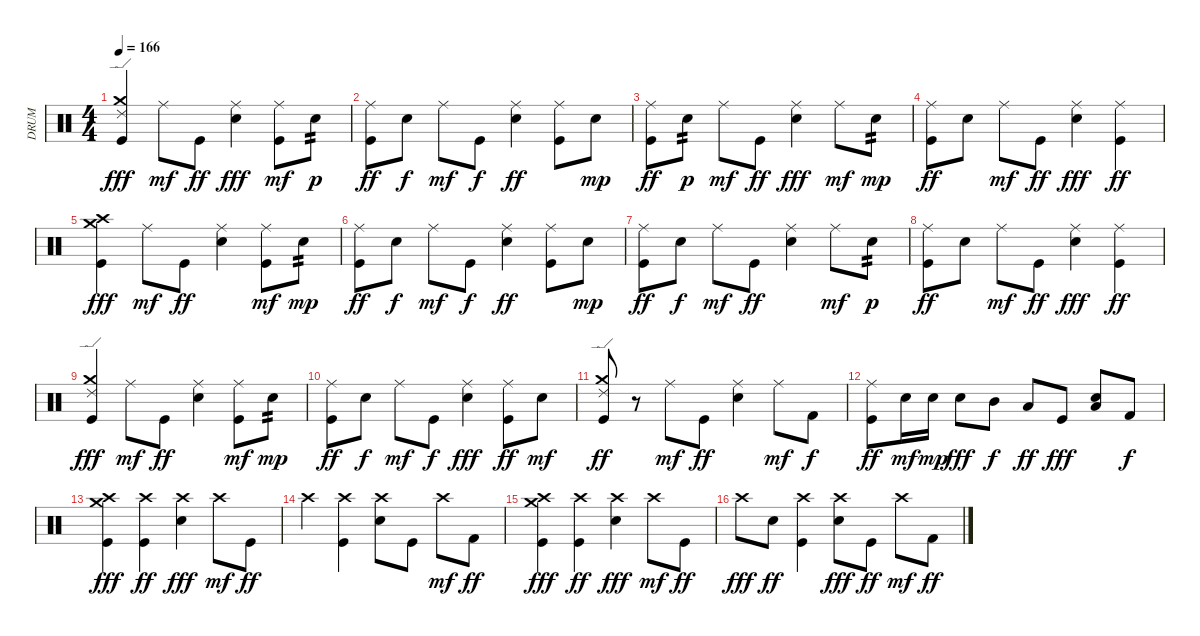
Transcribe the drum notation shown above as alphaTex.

\track ("DRUM" "DRUM") {instrument percussion}
\staff {score}
\articulation defaults
\ts (4 4)
\tempo 166
\clef neutral
\ks c
("Ride (edge) 2" "Crash medium (hit)" "Kick (hit)").4{dy fff} "Ride (middle)".8{dy mf} "Kick (hit)".8{dy ff} ("Ride (middle)" "Electric Snare (hit)").4{dy fff} ("Ride (middle)" "Kick (hit)").8{dy mf} "Electric Snare (hit)".8{tp 2 dy p} |
("Ride (middle)" "Kick (hit)").8{dy ff} "Electric Snare (hit)".8{dy f} "Ride (middle)".8{dy mf} "Kick (hit)".8{dy f} ("Ride (middle)" "Electric Snare (hit)").4{dy ff} ("Ride (middle)" "Kick (hit)").8 "Electric Snare (hit)".8{dy mp} |
("Ride (middle)" "Kick (hit)").8{dy ff} "Electric Snare (hit)".8{tp 2 dy p} "Ride (middle)".8{dy mf} "Kick (hit)".8{dy ff} ("Ride (middle)" "Electric Snare (hit)").4{dy fff} "Ride (middle)".8{dy mf} "Electric Snare (hit)".8{tp 2 dy mp} |
("Ride (middle)" "Kick (hit)").8{dy ff} "Electric Snare (hit)".8 "Ride (middle)".8{dy mf} "Kick (hit)".8{dy ff} ("Ride (middle)" "Electric Snare (hit)").4{dy fff} ("Ride (middle)" "Kick (hit)").4{dy ff} |
("Crash high (hit)" "Crash medium (hit)" "Kick (hit)").4{dy fff} "Ride (middle)".8{dy mf} "Kick (hit)".8{dy ff} ("Ride (middle)" "Electric Snare (hit)").4 ("Ride (middle)" "Kick (hit)").8{dy mf} "Electric Snare (hit)".8{tp 2 dy mp} |
("Ride (middle)" "Kick (hit)").8{dy ff} "Electric Snare (hit)".8{dy f} "Ride (middle)".8{dy mf} "Kick (hit)".8{dy f} ("Ride (middle)" "Electric Snare (hit)").4{dy ff} ("Ride (middle)" "Kick (hit)").8 "Electric Snare (hit)".8{dy mp} |
("Ride (middle)" "Kick (hit)").8{dy ff} "Electric Snare (hit)".8{dy f} "Ride (middle)".8{dy mf} "Kick (hit)".8{dy ff} ("Ride (middle)" "Electric Snare (hit)").4 "Ride (middle)".8{dy mf} "Electric Snare (hit)".8{tp 2 dy p} |
("Ride (middle)" "Kick (hit)").8{dy ff} "Electric Snare (hit)".8 "Ride (middle)".8{dy mf} "Kick (hit)".8{dy ff} ("Ride (middle)" "Electric Snare (hit)").4{dy fff} ("Ride (middle)" "Kick (hit)").4{dy ff} |
("Ride (edge) 2" "Crash medium (hit)" "Kick (hit)").4{dy fff} "Ride (middle)".8{dy mf} "Kick (hit)".8{dy ff} ("Ride (middle)" "Electric Snare (hit)").4 ("Ride (middle)" "Kick (hit)").8{dy mf} "Electric Snare (hit)".8{tp 2 dy mp} |
("Ride (middle)" "Kick (hit)").8{dy ff} "Electric Snare (hit)".8{dy f} "Ride (middle)".8{dy mf} "Kick (hit)".8{dy f} ("Ride (middle)" "Electric Snare (hit)").4{dy fff} ("Ride (middle)" "Kick (hit)").8{dy ff} "Electric Snare (hit)".8{dy mf} |
("Ride (edge) 2" "Crash medium (hit)" "Kick (hit)").8{dy ff} r.8 "Ride (middle)".8{dy mf} "Kick (hit)".8{dy ff} ("Ride (middle)" "Electric Snare (hit)").4 "Ride (middle)".8{dy mf} "Kick (hit) 2".8{dy f} |
("Ride (middle)" "Kick (hit)").8{dy ff} "Electric Snare (hit)".16{dy mf} "Electric Snare (hit)".16{dy mp} "Snare (hit) 2".8{dy fff} "Mid Tom (hit)".8{dy f} "Low Tom (hit)".8{dy ff} "Kick (hit)".8{dy fff} ("Electric Snare (hit)" "Low Floor Tom (hit)").8 "Kick (hit) 2".8{dy f} |
("Crash high (hit)" "Crash medium (hit)" "Kick (hit)").4{dy fff} ("Crash high (hit)" "Kick (hit)").4{dy ff} ("Crash high (hit)" "Electric Snare (hit)").4{dy fff} "Crash high (hit)".8{dy mf} "Kick (hit)".8{dy ff} |
"Crash high (hit)".4 ("Crash high (hit)" "Kick (hit)").4 ("Crash high (hit)" "Electric Snare (hit)").8 "Kick (hit)".8 "Crash high (hit)".8{dy mf} "Kick (hit) 2".8{dy ff} |
("Crash high (hit)" "Crash medium (hit)" "Kick (hit)").4{dy fff} ("Crash high (hit)" "Kick (hit)").4{dy ff} ("Crash high (hit)" "Electric Snare (hit)").4{dy fff} "Crash high (hit)".8{dy mf} "Kick (hit)".8{dy ff} |
"Crash high (hit)".8{dy fff} "Electric Snare (hit)".8{dy ff} ("Crash high (hit)" "Kick (hit)").4 ("Crash high (hit)" "Electric Snare (hit)").8{dy fff} "Kick (hit)".8{dy ff} "Crash high (hit)".8{dy mf} "Kick (hit) 2".8{dy ff}
